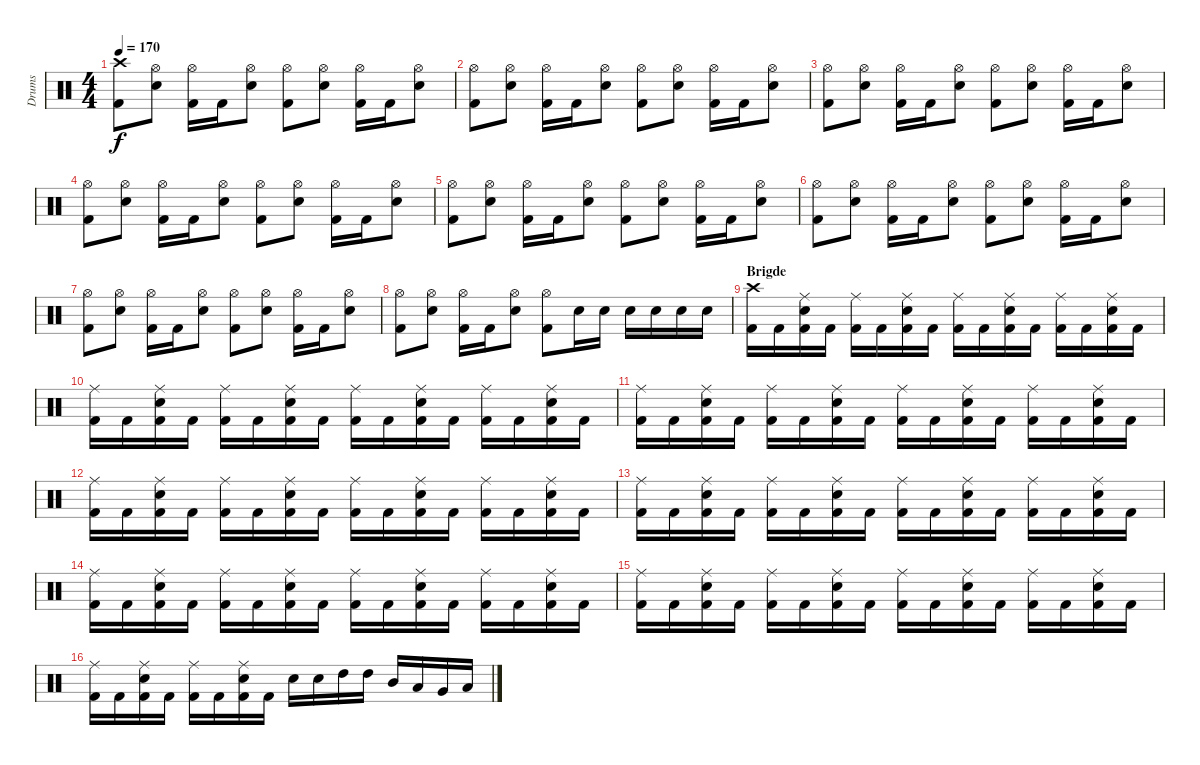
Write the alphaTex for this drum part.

\track ("Drums" "Drums") {instrument percussion}
\staff {score}
\articulation defaults
\ts (4 4)
\tempo 170
\clef neutral
\ks c
("Crash high (hit)" "Kick (hit) 2").8{dy f} ("Hi-Hat (open)" "Electric Snare (hit)").8 ("Hi-Hat (open)" "Kick (hit) 2").16 "Kick (hit) 2".16 ("Hi-Hat (open)" "Electric Snare (hit)").8 ("Hi-Hat (open)" "Kick (hit) 2").8 ("Hi-Hat (open)" "Electric Snare (hit)").8 ("Hi-Hat (open)" "Kick (hit) 2").16 "Kick (hit) 2".16 ("Hi-Hat (open)" "Electric Snare (hit)").8 |
("Hi-Hat (open)" "Kick (hit) 2").8 ("Hi-Hat (open)" "Electric Snare (hit)").8 ("Hi-Hat (open)" "Kick (hit) 2").16 "Kick (hit) 2".16 ("Hi-Hat (open)" "Electric Snare (hit)").8 ("Hi-Hat (open)" "Kick (hit) 2").8 ("Hi-Hat (open)" "Electric Snare (hit)").8 ("Hi-Hat (open)" "Kick (hit) 2").16 "Kick (hit) 2".16 ("Hi-Hat (open)" "Electric Snare (hit)").8 |
("Hi-Hat (open)" "Kick (hit) 2").8 ("Hi-Hat (open)" "Electric Snare (hit)").8 ("Hi-Hat (open)" "Kick (hit) 2").16 "Kick (hit) 2".16 ("Hi-Hat (open)" "Electric Snare (hit)").8 ("Hi-Hat (open)" "Kick (hit) 2").8 ("Hi-Hat (open)" "Electric Snare (hit)").8 ("Hi-Hat (open)" "Kick (hit) 2").16 "Kick (hit) 2".16 ("Hi-Hat (open)" "Electric Snare (hit)").8 |
("Hi-Hat (open)" "Kick (hit) 2").8 ("Hi-Hat (open)" "Electric Snare (hit)").8 ("Hi-Hat (open)" "Kick (hit) 2").16 "Kick (hit) 2".16 ("Hi-Hat (open)" "Electric Snare (hit)").8 ("Hi-Hat (open)" "Kick (hit) 2").8 ("Hi-Hat (open)" "Electric Snare (hit)").8 ("Hi-Hat (open)" "Kick (hit) 2").16 "Kick (hit) 2".16 ("Hi-Hat (open)" "Electric Snare (hit)").8 |
("Hi-Hat (open)" "Kick (hit) 2").8 ("Hi-Hat (open)" "Electric Snare (hit)").8 ("Hi-Hat (open)" "Kick (hit) 2").16 "Kick (hit) 2".16 ("Hi-Hat (open)" "Electric Snare (hit)").8 ("Hi-Hat (open)" "Kick (hit) 2").8 ("Hi-Hat (open)" "Electric Snare (hit)").8 ("Hi-Hat (open)" "Kick (hit) 2").16 "Kick (hit) 2".16 ("Hi-Hat (open)" "Electric Snare (hit)").8 |
("Hi-Hat (open)" "Kick (hit) 2").8 ("Hi-Hat (open)" "Electric Snare (hit)").8 ("Hi-Hat (open)" "Kick (hit) 2").16 "Kick (hit) 2".16 ("Hi-Hat (open)" "Electric Snare (hit)").8 ("Hi-Hat (open)" "Kick (hit) 2").8 ("Hi-Hat (open)" "Electric Snare (hit)").8 ("Hi-Hat (open)" "Kick (hit) 2").16 "Kick (hit) 2".16 ("Hi-Hat (open)" "Electric Snare (hit)").8 |
("Hi-Hat (open)" "Kick (hit) 2").8 ("Hi-Hat (open)" "Electric Snare (hit)").8 ("Hi-Hat (open)" "Kick (hit) 2").16 "Kick (hit) 2".16 ("Hi-Hat (open)" "Electric Snare (hit)").8 ("Hi-Hat (open)" "Kick (hit) 2").8 ("Hi-Hat (open)" "Electric Snare (hit)").8 ("Hi-Hat (open)" "Kick (hit) 2").16 "Kick (hit) 2".16 ("Hi-Hat (open)" "Electric Snare (hit)").8 |
("Hi-Hat (open)" "Kick (hit) 2").8 ("Hi-Hat (open)" "Electric Snare (hit)").8 ("Hi-Hat (open)" "Kick (hit) 2").16 "Kick (hit) 2".16 ("Hi-Hat (open)" "Electric Snare (hit)").8 ("Hi-Hat (open)" "Kick (hit) 2").8 "Electric Snare (hit)".16 "Electric Snare (hit)".16 "Electric Snare (hit)".16 "Electric Snare (hit)".16 "Electric Snare (hit)".16 "Electric Snare (hit)".16 |
\section ("" "Brigde")
("Crash high (hit)" "Kick (hit) 2").16 "Kick (hit) 2".16 ("Ride (middle)" "Electric Snare (hit)" "Kick (hit) 2").16 "Kick (hit) 2".16 ("Ride (middle)" "Kick (hit) 2").16 "Kick (hit) 2".16 ("Ride (middle)" "Electric Snare (hit)" "Kick (hit) 2").16 "Kick (hit) 2".16 ("Ride (middle)" "Kick (hit) 2").16 "Kick (hit) 2".16 ("Ride (middle)" "Electric Snare (hit)" "Kick (hit) 2").16 "Kick (hit) 2".16 ("Ride (middle)" "Kick (hit) 2").16 "Kick (hit) 2".16 ("Ride (middle)" "Electric Snare (hit)" "Kick (hit) 2").16 "Kick (hit) 2".16 |
("Ride (middle)" "Kick (hit) 2").16 "Kick (hit) 2".16 ("Ride (middle)" "Electric Snare (hit)" "Kick (hit) 2").16 "Kick (hit) 2".16 ("Ride (middle)" "Kick (hit) 2").16 "Kick (hit) 2".16 ("Ride (middle)" "Electric Snare (hit)" "Kick (hit) 2").16 "Kick (hit) 2".16 ("Ride (middle)" "Kick (hit) 2").16 "Kick (hit) 2".16 ("Ride (middle)" "Electric Snare (hit)" "Kick (hit) 2").16 "Kick (hit) 2".16 ("Ride (middle)" "Kick (hit) 2").16 "Kick (hit) 2".16 ("Ride (middle)" "Electric Snare (hit)" "Kick (hit) 2").16 "Kick (hit) 2".16 |
("Ride (middle)" "Kick (hit) 2").16 "Kick (hit) 2".16 ("Ride (middle)" "Electric Snare (hit)" "Kick (hit) 2").16 "Kick (hit) 2".16 ("Ride (middle)" "Kick (hit) 2").16 "Kick (hit) 2".16 ("Ride (middle)" "Electric Snare (hit)" "Kick (hit) 2").16 "Kick (hit) 2".16 ("Ride (middle)" "Kick (hit) 2").16 "Kick (hit) 2".16 ("Ride (middle)" "Electric Snare (hit)" "Kick (hit) 2").16 "Kick (hit) 2".16 ("Ride (middle)" "Kick (hit) 2").16 "Kick (hit) 2".16 ("Ride (middle)" "Electric Snare (hit)" "Kick (hit) 2").16 "Kick (hit) 2".16 |
("Ride (middle)" "Kick (hit) 2").16 "Kick (hit) 2".16 ("Ride (middle)" "Electric Snare (hit)" "Kick (hit) 2").16 "Kick (hit) 2".16 ("Ride (middle)" "Kick (hit) 2").16 "Kick (hit) 2".16 ("Ride (middle)" "Electric Snare (hit)" "Kick (hit) 2").16 "Kick (hit) 2".16 ("Ride (middle)" "Kick (hit) 2").16 "Kick (hit) 2".16 ("Ride (middle)" "Electric Snare (hit)" "Kick (hit) 2").16 "Kick (hit) 2".16 ("Ride (middle)" "Kick (hit) 2").16 "Kick (hit) 2".16 ("Ride (middle)" "Electric Snare (hit)" "Kick (hit) 2").16 "Kick (hit) 2".16 |
("Ride (middle)" "Kick (hit) 2").16 "Kick (hit) 2".16 ("Ride (middle)" "Electric Snare (hit)" "Kick (hit) 2").16 "Kick (hit) 2".16 ("Ride (middle)" "Kick (hit) 2").16 "Kick (hit) 2".16 ("Ride (middle)" "Electric Snare (hit)" "Kick (hit) 2").16 "Kick (hit) 2".16 ("Ride (middle)" "Kick (hit) 2").16 "Kick (hit) 2".16 ("Ride (middle)" "Electric Snare (hit)" "Kick (hit) 2").16 "Kick (hit) 2".16 ("Ride (middle)" "Kick (hit) 2").16 "Kick (hit) 2".16 ("Ride (middle)" "Electric Snare (hit)" "Kick (hit) 2").16 "Kick (hit) 2".16 |
("Ride (middle)" "Kick (hit) 2").16 "Kick (hit) 2".16 ("Ride (middle)" "Electric Snare (hit)" "Kick (hit) 2").16 "Kick (hit) 2".16 ("Ride (middle)" "Kick (hit) 2").16 "Kick (hit) 2".16 ("Ride (middle)" "Electric Snare (hit)" "Kick (hit) 2").16 "Kick (hit) 2".16 ("Ride (middle)" "Kick (hit) 2").16 "Kick (hit) 2".16 ("Ride (middle)" "Electric Snare (hit)" "Kick (hit) 2").16 "Kick (hit) 2".16 ("Ride (middle)" "Kick (hit) 2").16 "Kick (hit) 2".16 ("Ride (middle)" "Electric Snare (hit)" "Kick (hit) 2").16 "Kick (hit) 2".16 |
("Ride (middle)" "Kick (hit) 2").16 "Kick (hit) 2".16 ("Ride (middle)" "Electric Snare (hit)" "Kick (hit) 2").16 "Kick (hit) 2".16 ("Ride (middle)" "Kick (hit) 2").16 "Kick (hit) 2".16 ("Ride (middle)" "Electric Snare (hit)" "Kick (hit) 2").16 "Kick (hit) 2".16 ("Ride (middle)" "Kick (hit) 2").16 "Kick (hit) 2".16 ("Ride (middle)" "Electric Snare (hit)" "Kick (hit) 2").16 "Kick (hit) 2".16 ("Ride (middle)" "Kick (hit) 2").16 "Kick (hit) 2".16 ("Ride (middle)" "Electric Snare (hit)" "Kick (hit) 2").16 "Kick (hit) 2".16 |
("Ride (middle)" "Kick (hit) 2").16 "Kick (hit) 2".16 ("Ride (middle)" "Electric Snare (hit)" "Kick (hit) 2").16 "Kick (hit) 2".16 ("Ride (middle)" "Kick (hit) 2").16 "Kick (hit) 2".16 ("Ride (middle)" "Electric Snare (hit)" "Kick (hit) 2").16 "Kick (hit) 2".16 "Electric Snare (hit)".16 "Electric Snare (hit)".16 "High Tom (hit)".16 "High Tom (hit)".16 "Mid Tom (hit)".16 "Low Tom (hit)".16 "Very Low Tom (hit)".16 "Low Floor Tom (hit)".16
